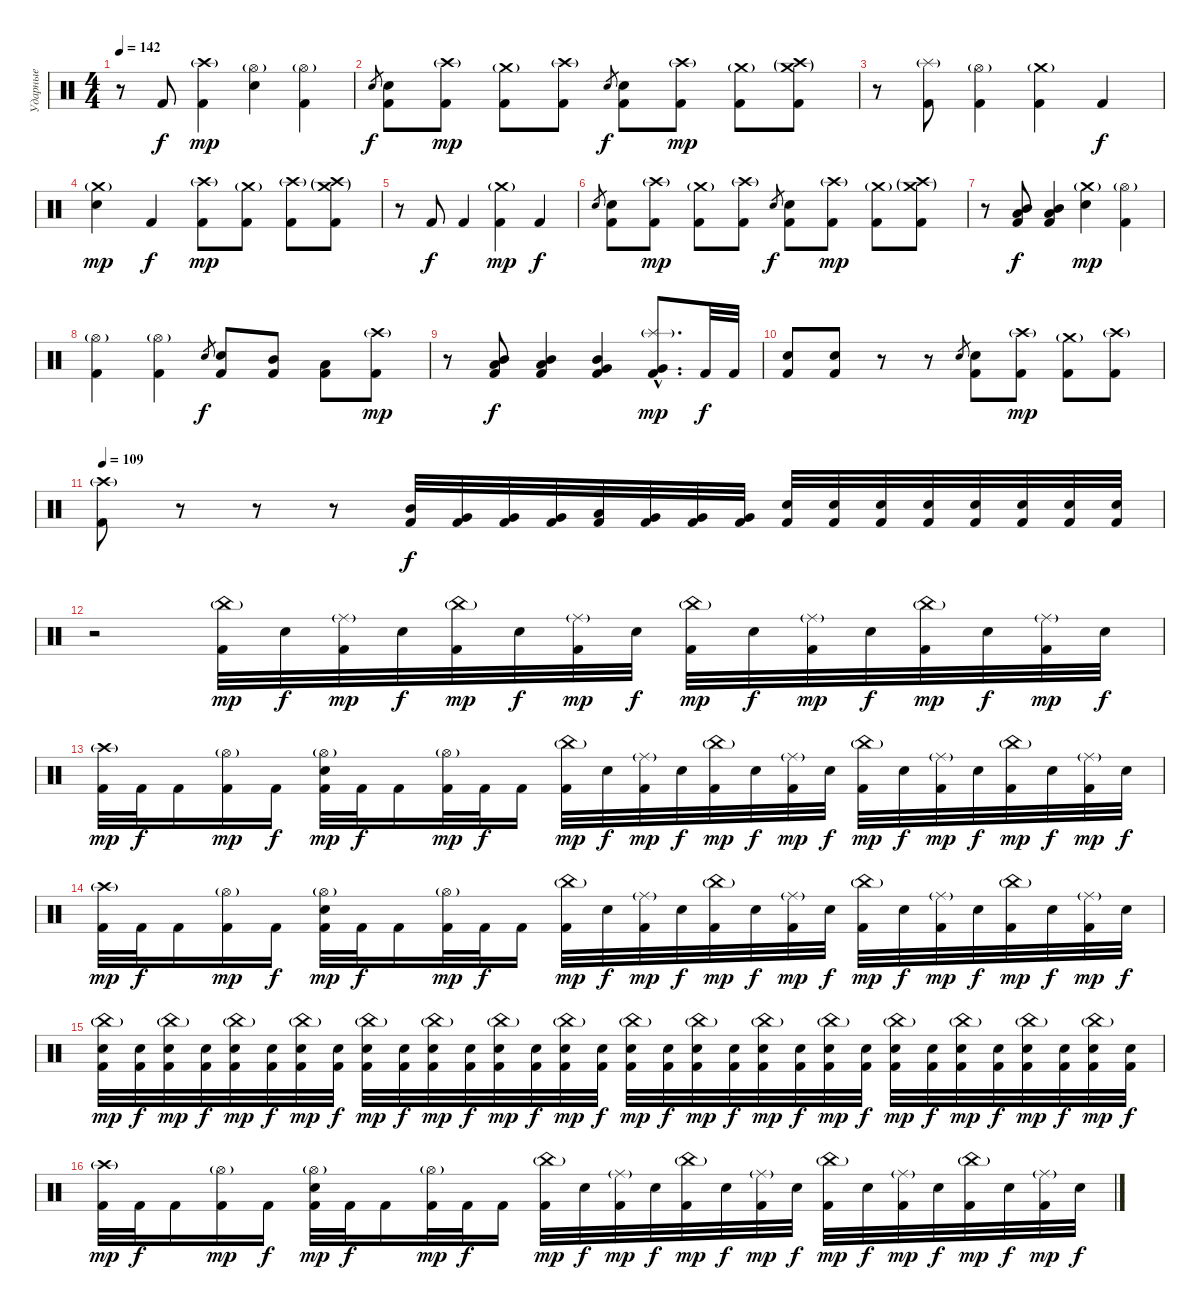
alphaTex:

\track ("Ударные" "Ударные") {instrument percussion}
\staff {score}
\articulation defaults
\ts (4 4)
\tempo 142
\clef neutral
\ks c
r.8{dy mp} "Kick (hit) 2".8{dy f} ("Crash high (hit)"{g} "Kick (hit) 2").4{dy mp} ("Hi-Hat (open)"{g} "Electric Snare (hit)").4 ("Hi-Hat (open)"{g} "Kick (hit) 2").4 |
"Electric Snare (hit)".8{gr dy f} ("Electric Snare (hit)" "Kick (hit) 2").8 ("Crash high (hit)"{g} "Kick (hit) 2").8{dy mp} ("Crash medium (hit)"{g} "Kick (hit) 2").8 ("Crash high (hit)"{g} "Kick (hit) 2").8 "Electric Snare (hit)".8{gr dy f} ("Electric Snare (hit)" "Kick (hit) 2").8 ("Crash high (hit)"{g} "Kick (hit) 2").8{dy mp} ("Crash medium (hit)"{g} "Kick (hit) 2").8 ("Crash high (hit)"{g} "Crash medium (hit)"{g} "Kick (hit) 2").8 |
r.8 ("Splash (hit)"{g} "Kick (hit) 2").8 ("Hi-Hat (open)"{g} "Kick (hit) 2").4 ("Crash medium (hit)"{g} "Kick (hit) 2").4 "Kick (hit) 2".4{dy f} |
("Crash medium (hit)"{g} "Electric Snare (hit)").4{dy mp} "Kick (hit) 2".4{dy f} ("Crash high (hit)"{g} "Kick (hit) 2").8{dy mp} ("Crash medium (hit)"{g} "Kick (hit) 2").8 ("Crash high (hit)"{g} "Kick (hit) 2").8 ("Crash high (hit)"{g} "Crash medium (hit)"{g} "Kick (hit) 2").8 |
r.8 "Kick (hit) 2".8{dy f} "Kick (hit) 2".4 ("Crash medium (hit)"{g} "Kick (hit) 2").4{dy mp} "Kick (hit) 2".4{dy f} |
"Electric Snare (hit)".8{gr} ("Electric Snare (hit)" "Kick (hit) 2").8 ("Crash high (hit)"{g} "Kick (hit) 2").8{dy mp} ("Crash medium (hit)"{g} "Kick (hit) 2").8 ("Crash high (hit)"{g} "Kick (hit) 2").8 "Electric Snare (hit)".8{gr dy f} ("Electric Snare (hit)" "Kick (hit) 2").8 ("Crash high (hit)"{g} "Kick (hit) 2").8{dy mp} ("Crash medium (hit)"{g} "Kick (hit) 2").8 ("Crash high (hit)"{g} "Crash medium (hit)"{g} "Kick (hit) 2").8 |
r.8 ("Low Tom (hit)" "Mid Tom (hit)" "Kick (hit) 2").8{dy f} ("Low Tom (hit)" "Mid Tom (hit)" "Kick (hit) 2").4 ("Crash medium (hit)"{g} "Electric Snare (hit)").4{dy mp} ("Hi-Hat (open)"{g} "Kick (hit) 2").4 |
("Hi-Hat (open)"{g} "Kick (hit) 2").4 ("Hi-Hat (open)"{g} "Kick (hit) 2").4 "Electric Snare (hit)".8{gr dy f} ("Electric Snare (hit)" "Kick (hit) 2").8 ("Mid Tom (hit)" "Kick (hit) 2").8 ("Low Tom (hit)" "Kick (hit) 2").8 ("Crash high (hit)"{g} "Kick (hit) 2").8{dy mp} |
r.8 ("Low Tom (hit)" "Mid Tom (hit)" "Kick (hit) 2").8{dy f} ("Low Tom (hit)" "Mid Tom (hit)" "Kick (hit) 2").4 ("Very Low Tom (hit)" "Mid Tom (hit)" "Kick (hit) 2").4 ("Splash (hit)"{g hac} "Very Low Tom (hit)"{hac} "Kick (hit) 2"{hac}).8{d dy mp} "Kick (hit) 2".32{dy f} "Kick (hit) 2".32 |
("Electric Snare (hit)" "Kick (hit) 2").8 ("Electric Snare (hit)" "Kick (hit) 2").8 r.8 r.8 "Electric Snare (hit)".8{gr} ("Electric Snare (hit)" "Kick (hit) 2").8 ("Crash high (hit)"{g} "Kick (hit) 2").8{dy mp} ("Crash medium (hit)"{g} "Kick (hit) 2").8 ("Crash high (hit)"{g} "Kick (hit) 2").8 |
\tempo 109
("Crash high (hit)"{g} "Kick (hit) 2").8 r.8 r.8 r.8 ("Mid Tom (hit)" "Kick (hit) 2").32{dy f} ("Very Low Tom (hit)" "Kick (hit) 2").32 ("Very Low Tom (hit)" "Kick (hit) 2").32 ("Very Low Tom (hit)" "Kick (hit) 2").32 ("Low Tom (hit)" "Kick (hit) 2").32 ("Very Low Tom (hit)" "Kick (hit) 2").32 ("Very Low Tom (hit)" "Kick (hit) 2").32 ("Very Low Tom (hit)" "Kick (hit) 2").32 ("Electric Snare (hit)" "Kick (hit) 2").32 ("Electric Snare (hit)" "Kick (hit) 2").32 ("Electric Snare (hit)" "Kick (hit) 2").32 ("Electric Snare (hit)" "Kick (hit) 2").32 ("Electric Snare (hit)" "Kick (hit) 2").32 ("Electric Snare (hit)" "Kick (hit) 2").32 ("Electric Snare (hit)" "Kick (hit) 2").32 ("Electric Snare (hit)" "Kick (hit) 2").32 |
r.2 ("China (hit)"{g} "Kick (hit) 2").32{dy mp} "Electric Snare (hit)".32{dy f} ("Ride (middle)"{g} "Kick (hit) 2").32{dy mp} "Electric Snare (hit)".32{dy f} ("China (hit)"{g} "Kick (hit) 2").32{dy mp} "Electric Snare (hit)".32{dy f} ("Ride (middle)"{g} "Kick (hit) 2").32{dy mp} "Electric Snare (hit)".32{dy f} ("China (hit)"{g} "Kick (hit) 2").32{dy mp} "Electric Snare (hit)".32{dy f} ("Ride (middle)"{g} "Kick (hit) 2").32{dy mp} "Electric Snare (hit)".32{dy f} ("China (hit)"{g} "Kick (hit) 2").32{dy mp} "Electric Snare (hit)".32{dy f} ("Ride (middle)"{g} "Kick (hit) 2").32{dy mp} "Electric Snare (hit)".32{dy f} |
("Crash high (hit)"{g} "Kick (hit) 2").32{dy mp} "Kick (hit) 2".32{dy f} "Kick (hit) 2".16 ("Hi-Hat (open)"{g} "Kick (hit) 2").16{dy mp} "Kick (hit) 2".16{dy f} ("Hi-Hat (open)"{g} "Electric Snare (hit)" "Kick (hit) 2").32{dy mp} "Kick (hit) 2".32{dy f} "Kick (hit) 2".16 ("Hi-Hat (open)"{g} "Kick (hit) 2").32{dy mp} "Kick (hit) 2".32{dy f} "Kick (hit) 2".16 ("China (hit)"{g} "Kick (hit) 2").32{dy mp} "Electric Snare (hit)".32{dy f} ("Ride (middle)"{g} "Kick (hit) 2").32{dy mp} "Electric Snare (hit)".32{dy f} ("China (hit)"{g} "Kick (hit) 2").32{dy mp} "Electric Snare (hit)".32{dy f} ("Ride (middle)"{g} "Kick (hit) 2").32{dy mp} "Electric Snare (hit)".32{dy f} ("China (hit)"{g} "Kick (hit) 2").32{dy mp} "Electric Snare (hit)".32{dy f} ("Ride (middle)"{g} "Kick (hit) 2").32{dy mp} "Electric Snare (hit)".32{dy f} ("China (hit)"{g} "Kick (hit) 2").32{dy mp} "Electric Snare (hit)".32{dy f} ("Ride (middle)"{g} "Kick (hit) 2").32{dy mp} "Electric Snare (hit)".32{dy f} |
("Crash high (hit)"{g} "Kick (hit) 2").32{dy mp} "Kick (hit) 2".32{dy f} "Kick (hit) 2".16 ("Hi-Hat (open)"{g} "Kick (hit) 2").16{dy mp} "Kick (hit) 2".16{dy f} ("Hi-Hat (open)"{g} "Electric Snare (hit)" "Kick (hit) 2").32{dy mp} "Kick (hit) 2".32{dy f} "Kick (hit) 2".16 ("Hi-Hat (open)"{g} "Kick (hit) 2").32{dy mp} "Kick (hit) 2".32{dy f} "Kick (hit) 2".16 ("China (hit)"{g} "Kick (hit) 2").32{dy mp} "Electric Snare (hit)".32{dy f} ("Ride (middle)"{g} "Kick (hit) 2").32{dy mp} "Electric Snare (hit)".32{dy f} ("China (hit)"{g} "Kick (hit) 2").32{dy mp} "Electric Snare (hit)".32{dy f} ("Ride (middle)"{g} "Kick (hit) 2").32{dy mp} "Electric Snare (hit)".32{dy f} ("China (hit)"{g} "Kick (hit) 2").32{dy mp} "Electric Snare (hit)".32{dy f} ("Ride (middle)"{g} "Kick (hit) 2").32{dy mp} "Electric Snare (hit)".32{dy f} ("China (hit)"{g} "Kick (hit) 2").32{dy mp} "Electric Snare (hit)".32{dy f} ("Ride (middle)"{g} "Kick (hit) 2").32{dy mp} "Electric Snare (hit)".32{dy f} |
("China (hit)"{g} "Electric Snare (hit)" "Kick (hit) 2").32{dy mp} ("Electric Snare (hit)" "Kick (hit) 2").32{dy f} ("China (hit)"{g} "Electric Snare (hit)" "Kick (hit) 2").32{dy mp} ("Electric Snare (hit)" "Kick (hit) 2").32{dy f} ("China (hit)"{g} "Electric Snare (hit)" "Kick (hit) 2").32{dy mp} ("Electric Snare (hit)" "Kick (hit) 2").32{dy f} ("China (hit)"{g} "Electric Snare (hit)" "Kick (hit) 2").32{dy mp} ("Electric Snare (hit)" "Kick (hit) 2").32{dy f} ("China (hit)"{g} "Electric Snare (hit)" "Kick (hit) 2").32{dy mp} ("Electric Snare (hit)" "Kick (hit) 2").32{dy f} ("China (hit)"{g} "Electric Snare (hit)" "Kick (hit) 2").32{dy mp} ("Electric Snare (hit)" "Kick (hit) 2").32{dy f} ("China (hit)"{g} "Electric Snare (hit)" "Kick (hit) 2").32{dy mp} ("Electric Snare (hit)" "Kick (hit) 2").32{dy f} ("China (hit)"{g} "Electric Snare (hit)" "Kick (hit) 2").32{dy mp} ("Electric Snare (hit)" "Kick (hit) 2").32{dy f} ("China (hit)"{g} "Electric Snare (hit)" "Kick (hit) 2").32{dy mp} ("Electric Snare (hit)" "Kick (hit) 2").32{dy f} ("China (hit)"{g} "Electric Snare (hit)" "Kick (hit) 2").32{dy mp} ("Electric Snare (hit)" "Kick (hit) 2").32{dy f} ("China (hit)"{g} "Electric Snare (hit)" "Kick (hit) 2").32{dy mp} ("Electric Snare (hit)" "Kick (hit) 2").32{dy f} ("China (hit)"{g} "Electric Snare (hit)" "Kick (hit) 2").32{dy mp} ("Electric Snare (hit)" "Kick (hit) 2").32{dy f} ("China (hit)"{g} "Electric Snare (hit)" "Kick (hit) 2").32{dy mp} ("Electric Snare (hit)" "Kick (hit) 2").32{dy f} ("China (hit)"{g} "Electric Snare (hit)" "Kick (hit) 2").32{dy mp} ("Electric Snare (hit)" "Kick (hit) 2").32{dy f} ("China (hit)"{g} "Electric Snare (hit)" "Kick (hit) 2").32{dy mp} ("Electric Snare (hit)" "Kick (hit) 2").32{dy f} ("China (hit)"{g} "Electric Snare (hit)" "Kick (hit) 2").32{dy mp} ("Electric Snare (hit)" "Kick (hit) 2").32{dy f} |
("Crash high (hit)"{g} "Kick (hit) 2").32{dy mp} "Kick (hit) 2".32{dy f} "Kick (hit) 2".16 ("Hi-Hat (open)"{g} "Kick (hit) 2").16{dy mp} "Kick (hit) 2".16{dy f} ("Hi-Hat (open)"{g} "Electric Snare (hit)" "Kick (hit) 2").32{dy mp} "Kick (hit) 2".32{dy f} "Kick (hit) 2".16 ("Hi-Hat (open)"{g} "Kick (hit) 2").32{dy mp} "Kick (hit) 2".32{dy f} "Kick (hit) 2".16 ("China (hit)"{g} "Kick (hit) 2").32{dy mp} "Electric Snare (hit)".32{dy f} ("Ride (middle)"{g} "Kick (hit) 2").32{dy mp} "Electric Snare (hit)".32{dy f} ("China (hit)"{g} "Kick (hit) 2").32{dy mp} "Electric Snare (hit)".32{dy f} ("Ride (middle)"{g} "Kick (hit) 2").32{dy mp} "Electric Snare (hit)".32{dy f} ("China (hit)"{g} "Kick (hit) 2").32{dy mp} "Electric Snare (hit)".32{dy f} ("Ride (middle)"{g} "Kick (hit) 2").32{dy mp} "Electric Snare (hit)".32{dy f} ("China (hit)"{g} "Kick (hit) 2").32{dy mp} "Electric Snare (hit)".32{dy f} ("Ride (middle)"{g} "Kick (hit) 2").32{dy mp} "Electric Snare (hit)".32{dy f}
